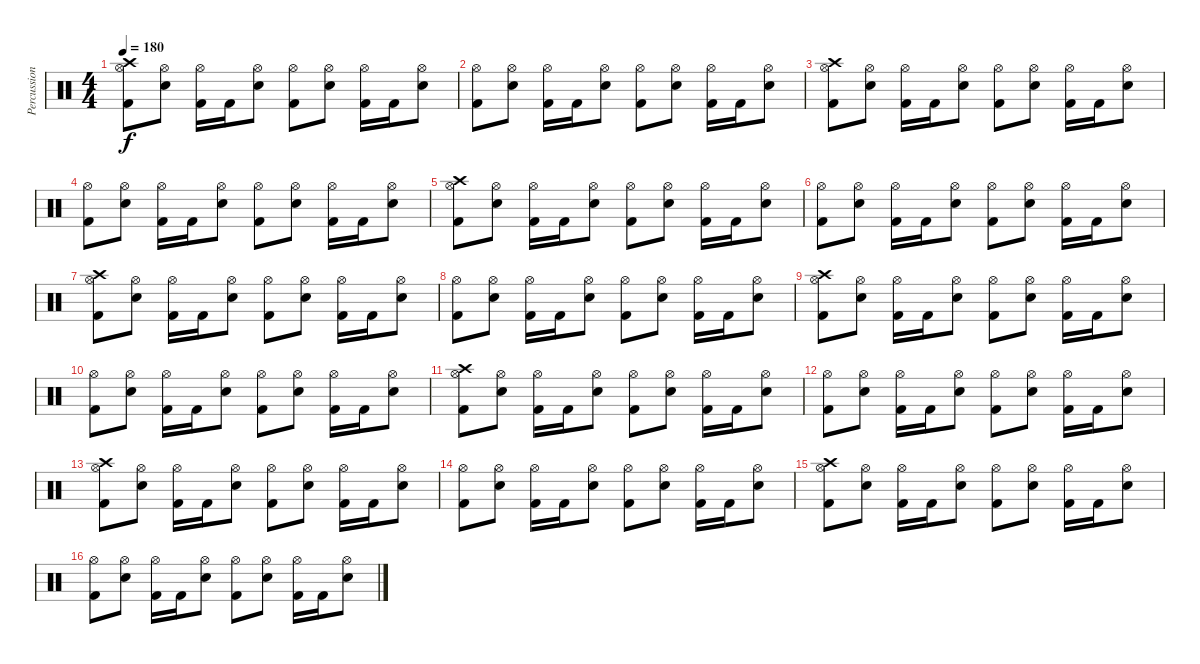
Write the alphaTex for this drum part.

\track ("Percussion" "Percussion") {instrument percussion}
\staff {score}
\articulation defaults
\ts (4 4)
\tempo 180
\clef neutral
\ks c
("Crash high (hit)" "Hi-Hat (open)" "Kick (hit) 2").8{dy f} ("Hi-Hat (open)" "Snare (hit) 2").8 ("Hi-Hat (open)" "Kick (hit) 2").16 "Kick (hit) 2".16 ("Hi-Hat (open)" "Snare (hit) 2").8 ("Hi-Hat (open)" "Kick (hit) 2").8 ("Hi-Hat (open)" "Snare (hit) 2").8 ("Hi-Hat (open)" "Kick (hit) 2").16 "Kick (hit) 2".16 ("Hi-Hat (open)" "Snare (hit) 2").8 |
("Hi-Hat (open)" "Kick (hit) 2").8 ("Hi-Hat (open)" "Snare (hit) 2").8 ("Hi-Hat (open)" "Kick (hit) 2").16 "Kick (hit) 2".16 ("Hi-Hat (open)" "Snare (hit) 2").8 ("Hi-Hat (open)" "Kick (hit) 2").8 ("Hi-Hat (open)" "Snare (hit) 2").8 ("Hi-Hat (open)" "Kick (hit) 2").16 "Kick (hit) 2".16 ("Hi-Hat (open)" "Snare (hit) 2").8 |
("Crash high (hit)" "Hi-Hat (open)" "Kick (hit) 2").8 ("Hi-Hat (open)" "Snare (hit) 2").8 ("Hi-Hat (open)" "Kick (hit) 2").16 "Kick (hit) 2".16 ("Hi-Hat (open)" "Snare (hit) 2").8 ("Hi-Hat (open)" "Kick (hit) 2").8 ("Hi-Hat (open)" "Snare (hit) 2").8 ("Hi-Hat (open)" "Kick (hit) 2").16 "Kick (hit) 2".16 ("Hi-Hat (open)" "Snare (hit) 2").8 |
("Hi-Hat (open)" "Kick (hit) 2").8 ("Hi-Hat (open)" "Snare (hit) 2").8 ("Hi-Hat (open)" "Kick (hit) 2").16 "Kick (hit) 2".16 ("Hi-Hat (open)" "Snare (hit) 2").8 ("Hi-Hat (open)" "Kick (hit) 2").8 ("Hi-Hat (open)" "Snare (hit) 2").8 ("Hi-Hat (open)" "Kick (hit) 2").16 "Kick (hit) 2".16 ("Hi-Hat (open)" "Snare (hit) 2").8 |
("Crash high (hit)" "Hi-Hat (open)" "Kick (hit) 2").8 ("Hi-Hat (open)" "Snare (hit) 2").8 ("Hi-Hat (open)" "Kick (hit) 2").16 "Kick (hit) 2".16 ("Hi-Hat (open)" "Snare (hit) 2").8 ("Hi-Hat (open)" "Kick (hit) 2").8 ("Hi-Hat (open)" "Snare (hit) 2").8 ("Hi-Hat (open)" "Kick (hit) 2").16 "Kick (hit) 2".16 ("Hi-Hat (open)" "Snare (hit) 2").8 |
("Hi-Hat (open)" "Kick (hit) 2").8 ("Hi-Hat (open)" "Snare (hit) 2").8 ("Hi-Hat (open)" "Kick (hit) 2").16 "Kick (hit) 2".16 ("Hi-Hat (open)" "Snare (hit) 2").8 ("Hi-Hat (open)" "Kick (hit) 2").8 ("Hi-Hat (open)" "Snare (hit) 2").8 ("Hi-Hat (open)" "Kick (hit) 2").16 "Kick (hit) 2".16 ("Hi-Hat (open)" "Snare (hit) 2").8 |
("Crash high (hit)" "Hi-Hat (open)" "Kick (hit) 2").8 ("Hi-Hat (open)" "Snare (hit) 2").8 ("Hi-Hat (open)" "Kick (hit) 2").16 "Kick (hit) 2".16 ("Hi-Hat (open)" "Snare (hit) 2").8 ("Hi-Hat (open)" "Kick (hit) 2").8 ("Hi-Hat (open)" "Snare (hit) 2").8 ("Hi-Hat (open)" "Kick (hit) 2").16 "Kick (hit) 2".16 ("Hi-Hat (open)" "Snare (hit) 2").8 |
("Hi-Hat (open)" "Kick (hit) 2").8 ("Hi-Hat (open)" "Snare (hit) 2").8 ("Hi-Hat (open)" "Kick (hit) 2").16 "Kick (hit) 2".16 ("Hi-Hat (open)" "Snare (hit) 2").8 ("Hi-Hat (open)" "Kick (hit) 2").8 ("Hi-Hat (open)" "Snare (hit) 2").8 ("Hi-Hat (open)" "Kick (hit) 2").16 "Kick (hit) 2".16 ("Hi-Hat (open)" "Snare (hit) 2").8 |
("Crash high (hit)" "Hi-Hat (open)" "Kick (hit) 2").8 ("Hi-Hat (open)" "Snare (hit) 2").8 ("Hi-Hat (open)" "Kick (hit) 2").16 "Kick (hit) 2".16 ("Hi-Hat (open)" "Snare (hit) 2").8 ("Hi-Hat (open)" "Kick (hit) 2").8 ("Hi-Hat (open)" "Snare (hit) 2").8 ("Hi-Hat (open)" "Kick (hit) 2").16 "Kick (hit) 2".16 ("Hi-Hat (open)" "Snare (hit) 2").8 |
("Hi-Hat (open)" "Kick (hit) 2").8 ("Hi-Hat (open)" "Snare (hit) 2").8 ("Hi-Hat (open)" "Kick (hit) 2").16 "Kick (hit) 2".16 ("Hi-Hat (open)" "Snare (hit) 2").8 ("Hi-Hat (open)" "Kick (hit) 2").8 ("Hi-Hat (open)" "Snare (hit) 2").8 ("Hi-Hat (open)" "Kick (hit) 2").16 "Kick (hit) 2".16 ("Hi-Hat (open)" "Snare (hit) 2").8 |
("Crash high (hit)" "Hi-Hat (open)" "Kick (hit) 2").8 ("Hi-Hat (open)" "Snare (hit) 2").8 ("Hi-Hat (open)" "Kick (hit) 2").16 "Kick (hit) 2".16 ("Hi-Hat (open)" "Snare (hit) 2").8 ("Hi-Hat (open)" "Kick (hit) 2").8 ("Hi-Hat (open)" "Snare (hit) 2").8 ("Hi-Hat (open)" "Kick (hit) 2").16 "Kick (hit) 2".16 ("Hi-Hat (open)" "Snare (hit) 2").8 |
("Hi-Hat (open)" "Kick (hit) 2").8 ("Hi-Hat (open)" "Snare (hit) 2").8 ("Hi-Hat (open)" "Kick (hit) 2").16 "Kick (hit) 2".16 ("Hi-Hat (open)" "Snare (hit) 2").8 ("Hi-Hat (open)" "Kick (hit) 2").8 ("Hi-Hat (open)" "Snare (hit) 2").8 ("Hi-Hat (open)" "Kick (hit) 2").16 "Kick (hit) 2".16 ("Hi-Hat (open)" "Snare (hit) 2").8 |
("Crash high (hit)" "Hi-Hat (open)" "Kick (hit) 2").8 ("Hi-Hat (open)" "Snare (hit) 2").8 ("Hi-Hat (open)" "Kick (hit) 2").16 "Kick (hit) 2".16 ("Hi-Hat (open)" "Snare (hit) 2").8 ("Hi-Hat (open)" "Kick (hit) 2").8 ("Hi-Hat (open)" "Snare (hit) 2").8 ("Hi-Hat (open)" "Kick (hit) 2").16 "Kick (hit) 2".16 ("Hi-Hat (open)" "Snare (hit) 2").8 |
("Hi-Hat (open)" "Kick (hit) 2").8 ("Hi-Hat (open)" "Snare (hit) 2").8 ("Hi-Hat (open)" "Kick (hit) 2").16 "Kick (hit) 2".16 ("Hi-Hat (open)" "Snare (hit) 2").8 ("Hi-Hat (open)" "Kick (hit) 2").8 ("Hi-Hat (open)" "Snare (hit) 2").8 ("Hi-Hat (open)" "Kick (hit) 2").16 "Kick (hit) 2".16 ("Hi-Hat (open)" "Snare (hit) 2").8 |
("Crash high (hit)" "Hi-Hat (open)" "Kick (hit) 2").8 ("Hi-Hat (open)" "Snare (hit) 2").8 ("Hi-Hat (open)" "Kick (hit) 2").16 "Kick (hit) 2".16 ("Hi-Hat (open)" "Snare (hit) 2").8 ("Hi-Hat (open)" "Kick (hit) 2").8 ("Hi-Hat (open)" "Snare (hit) 2").8 ("Hi-Hat (open)" "Kick (hit) 2").16 "Kick (hit) 2".16 ("Hi-Hat (open)" "Snare (hit) 2").8 |
("Hi-Hat (open)" "Kick (hit) 2").8 ("Hi-Hat (open)" "Snare (hit) 2").8 ("Hi-Hat (open)" "Kick (hit) 2").16 "Kick (hit) 2".16 ("Hi-Hat (open)" "Snare (hit) 2").8 ("Hi-Hat (open)" "Kick (hit) 2").8 ("Hi-Hat (open)" "Snare (hit) 2").8 ("Hi-Hat (open)" "Kick (hit) 2").16 "Kick (hit) 2".16 ("Hi-Hat (open)" "Snare (hit) 2").8
